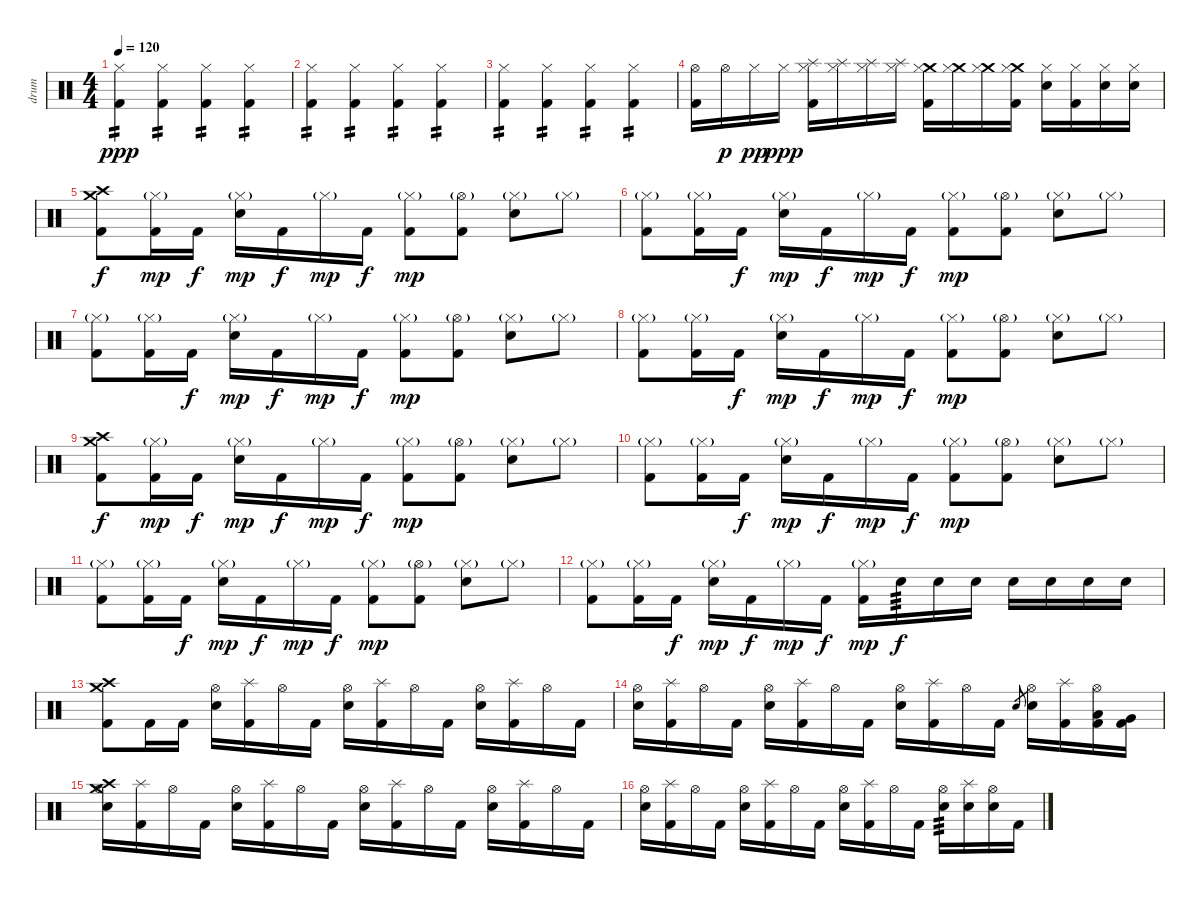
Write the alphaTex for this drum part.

\track ("drum" "drum") {instrument percussion}
\staff {score}
\articulation defaults
\ts (4 4)
\tempo 120
\clef neutral
\ks c
("Kick (hit) 2" "Hi-Hat (closed)").4{tp 2 dy ppp} ("Kick (hit) 2" "Hi-Hat (closed)").4{tp 2} ("Kick (hit) 2" "Hi-Hat (closed)").4{tp 2} ("Kick (hit) 2" "Hi-Hat (closed)").4{tp 2} |
("Kick (hit) 2" "Hi-Hat (closed)").4{tp 2} ("Kick (hit) 2" "Hi-Hat (closed)").4{tp 2} ("Kick (hit) 2" "Hi-Hat (closed)").4{tp 2} ("Kick (hit) 2" "Hi-Hat (closed)").4{tp 2} |
("Kick (hit) 2" "Hi-Hat (closed)").4{tp 2} ("Kick (hit) 2" "Hi-Hat (closed)").4{tp 2} ("Kick (hit) 2" "Hi-Hat (closed)").4{tp 2} ("Kick (hit) 2" "Hi-Hat (closed)").4{tp 2} |
("Kick (hit) 2" "Hi-Hat (open)").16 "Hi-Hat (open)".16{dy p} "Hi-Hat (closed)".16{dy pp} "Hi-Hat (closed)".16{dy ppp} ("Splash (hit)" "Kick (hit) 2" "Hi-Hat (closed)").16 ("Splash (hit)" "Hi-Hat (closed)").16 ("Splash (hit)" "Hi-Hat (closed)").16 ("Splash (hit)" "Hi-Hat (closed)").16 ("Crash medium (hit)" "Kick (hit) 2" "Hi-Hat (closed)").16 ("Crash medium (hit)" "Hi-Hat (closed)").16 ("Crash medium (hit)" "Hi-Hat (closed)").16 ("Crash medium (hit)" "Kick (hit) 2" "Hi-Hat (closed)").16 ("Electric Snare (hit)" "Hi-Hat (closed)").16 ("Kick (hit) 2" "Hi-Hat (closed)").16 ("Electric Snare (hit)" "Hi-Hat (closed)").16 ("Electric Snare (hit)" "Hi-Hat (closed)").16 |
("Crash medium (hit)" "Crash high (hit)" "Kick (hit) 2").8{dy f} ("Hi-Hat (closed)"{g} "Kick (hit) 2").16{dy mp} "Kick (hit) 2".16{dy f} ("Hi-Hat (closed)"{g} "Electric Snare (hit)").16{dy mp} "Kick (hit) 2".16{dy f} "Hi-Hat (closed)"{g}.16{dy mp} "Kick (hit) 2".16{dy f} ("Hi-Hat (closed)"{g} "Kick (hit) 2").8{dy mp} ("Hi-Hat (open)"{g} "Kick (hit) 2").8 ("Hi-Hat (closed)"{g} "Electric Snare (hit)").8 "Hi-Hat (closed)"{g}.8 |
("Hi-Hat (closed)"{g} "Kick (hit) 2").8 ("Hi-Hat (closed)"{g} "Kick (hit) 2").16 "Kick (hit) 2".16{dy f} ("Hi-Hat (closed)"{g} "Electric Snare (hit)").16{dy mp} "Kick (hit) 2".16{dy f} "Hi-Hat (closed)"{g}.16{dy mp} "Kick (hit) 2".16{dy f} ("Hi-Hat (closed)"{g} "Kick (hit) 2").8{dy mp} ("Hi-Hat (open)"{g} "Kick (hit) 2").8 ("Hi-Hat (closed)"{g} "Electric Snare (hit)").8 "Hi-Hat (closed)"{g}.8 |
("Hi-Hat (closed)"{g} "Kick (hit) 2").8 ("Hi-Hat (closed)"{g} "Kick (hit) 2").16 "Kick (hit) 2".16{dy f} ("Hi-Hat (closed)"{g} "Electric Snare (hit)").16{dy mp} "Kick (hit) 2".16{dy f} "Hi-Hat (closed)"{g}.16{dy mp} "Kick (hit) 2".16{dy f} ("Hi-Hat (closed)"{g} "Kick (hit) 2").8{dy mp} ("Hi-Hat (open)"{g} "Kick (hit) 2").8 ("Hi-Hat (closed)"{g} "Electric Snare (hit)").8 "Hi-Hat (closed)"{g}.8 |
("Hi-Hat (closed)"{g} "Kick (hit) 2").8 ("Hi-Hat (closed)"{g} "Kick (hit) 2").16 "Kick (hit) 2".16{dy f} ("Hi-Hat (closed)"{g} "Electric Snare (hit)").16{dy mp} "Kick (hit) 2".16{dy f} "Hi-Hat (closed)"{g}.16{dy mp} "Kick (hit) 2".16{dy f} ("Hi-Hat (closed)"{g} "Kick (hit) 2").8{dy mp} ("Hi-Hat (open)"{g} "Kick (hit) 2").8 ("Hi-Hat (closed)"{g} "Electric Snare (hit)").8 "Hi-Hat (closed)"{g}.8 |
("Crash medium (hit)" "Crash high (hit)" "Kick (hit) 2").8{dy f} ("Hi-Hat (closed)"{g} "Kick (hit) 2").16{dy mp} "Kick (hit) 2".16{dy f} ("Hi-Hat (closed)"{g} "Electric Snare (hit)").16{dy mp} "Kick (hit) 2".16{dy f} "Hi-Hat (closed)"{g}.16{dy mp} "Kick (hit) 2".16{dy f} ("Hi-Hat (closed)"{g} "Kick (hit) 2").8{dy mp} ("Hi-Hat (open)"{g} "Kick (hit) 2").8 ("Hi-Hat (closed)"{g} "Electric Snare (hit)").8 "Hi-Hat (closed)"{g}.8 |
("Hi-Hat (closed)"{g} "Kick (hit) 2").8 ("Hi-Hat (closed)"{g} "Kick (hit) 2").16 "Kick (hit) 2".16{dy f} ("Hi-Hat (closed)"{g} "Electric Snare (hit)").16{dy mp} "Kick (hit) 2".16{dy f} "Hi-Hat (closed)"{g}.16{dy mp} "Kick (hit) 2".16{dy f} ("Hi-Hat (closed)"{g} "Kick (hit) 2").8{dy mp} ("Hi-Hat (open)"{g} "Kick (hit) 2").8 ("Hi-Hat (closed)"{g} "Electric Snare (hit)").8 "Hi-Hat (closed)"{g}.8 |
("Hi-Hat (closed)"{g} "Kick (hit) 2").8 ("Hi-Hat (closed)"{g} "Kick (hit) 2").16 "Kick (hit) 2".16{dy f} ("Hi-Hat (closed)"{g} "Electric Snare (hit)").16{dy mp} "Kick (hit) 2".16{dy f} "Hi-Hat (closed)"{g}.16{dy mp} "Kick (hit) 2".16{dy f} ("Hi-Hat (closed)"{g} "Kick (hit) 2").8{dy mp} ("Hi-Hat (open)"{g} "Kick (hit) 2").8 ("Hi-Hat (closed)"{g} "Electric Snare (hit)").8 "Hi-Hat (closed)"{g}.8 |
("Hi-Hat (closed)"{g} "Kick (hit) 2").8 ("Hi-Hat (closed)"{g} "Kick (hit) 2").16 "Kick (hit) 2".16{dy f} ("Hi-Hat (closed)"{g} "Electric Snare (hit)").16{dy mp} "Kick (hit) 2".16{dy f} "Hi-Hat (closed)"{g}.16{dy mp} "Kick (hit) 2".16{dy f} ("Hi-Hat (closed)"{g} "Kick (hit) 2").16{dy mp} "Electric Snare (hit)".16{tp 3 dy f} "Electric Snare (hit)".16 "Electric Snare (hit)".16 "Electric Snare (hit)".16 "Electric Snare (hit)".16 "Electric Snare (hit)".16 "Electric Snare (hit)".16 |
("Crash medium (hit)" "Crash high (hit)" "Kick (hit) 2").8 "Kick (hit) 2".16 "Kick (hit) 2".16 ("Hi-Hat (open)" "Electric Snare (hit)").16 ("Splash (hit)" "Kick (hit) 2").16 "Hi-Hat (open)".16 "Kick (hit) 2".16 ("Hi-Hat (open)" "Electric Snare (hit)").16 ("Splash (hit)" "Kick (hit) 2").16 "Hi-Hat (open)".16 "Kick (hit) 2".16 ("Hi-Hat (open)" "Electric Snare (hit)").16 ("Splash (hit)" "Kick (hit) 2").16 "Hi-Hat (open)".16 "Kick (hit) 2".16 |
("Hi-Hat (open)" "Electric Snare (hit)").16 ("Splash (hit)" "Kick (hit) 2").16 "Hi-Hat (open)".16 "Kick (hit) 2".16 ("Hi-Hat (open)" "Electric Snare (hit)").16 ("Splash (hit)" "Kick (hit) 2").16 "Hi-Hat (open)".16 "Kick (hit) 2".16 ("Hi-Hat (open)" "Electric Snare (hit)").16 ("Splash (hit)" "Kick (hit) 2").16 "Hi-Hat (open)".16 "Kick (hit) 2".16 "Electric Snare (hit)".8{gr} ("Hi-Hat (open)" "Electric Snare (hit)").16 ("Splash (hit)" "Kick (hit) 2").16 ("Hi-Hat (open)" "Low Tom (hit)" "Kick (hit) 2").16 ("Very Low Tom (hit)" "Kick (hit) 2").16 |
("Crash medium (hit)" "Hi-Hat (open)" "Crash high (hit)" "Electric Snare (hit)").16 ("Splash (hit)" "Kick (hit) 2").16 "Hi-Hat (open)".16 "Kick (hit) 2".16 ("Hi-Hat (open)" "Electric Snare (hit)").16 ("Splash (hit)" "Kick (hit) 2").16 "Hi-Hat (open)".16 "Kick (hit) 2".16 ("Hi-Hat (open)" "Electric Snare (hit)").16 ("Splash (hit)" "Kick (hit) 2").16 "Hi-Hat (open)".16 "Kick (hit) 2".16 ("Hi-Hat (open)" "Electric Snare (hit)").16 ("Splash (hit)" "Kick (hit) 2").16 "Hi-Hat (open)".16 "Kick (hit) 2".16 |
("Hi-Hat (open)" "Electric Snare (hit)").16 ("Splash (hit)" "Kick (hit) 2").16 "Hi-Hat (open)".16 "Kick (hit) 2".16 ("Hi-Hat (open)" "Electric Snare (hit)").16 ("Splash (hit)" "Kick (hit) 2").16 "Hi-Hat (open)".16 "Kick (hit) 2".16 ("Hi-Hat (open)" "Electric Snare (hit)").16 ("Splash (hit)" "Kick (hit) 2").16 "Hi-Hat (open)".16 "Kick (hit) 2".16 ("Hi-Hat (open)" "Electric Snare (hit)").16{tp 3} ("Splash (hit)" "Electric Snare (hit)").16 ("Hi-Hat (open)" "Electric Snare (hit)").16 "Kick (hit) 2".16
